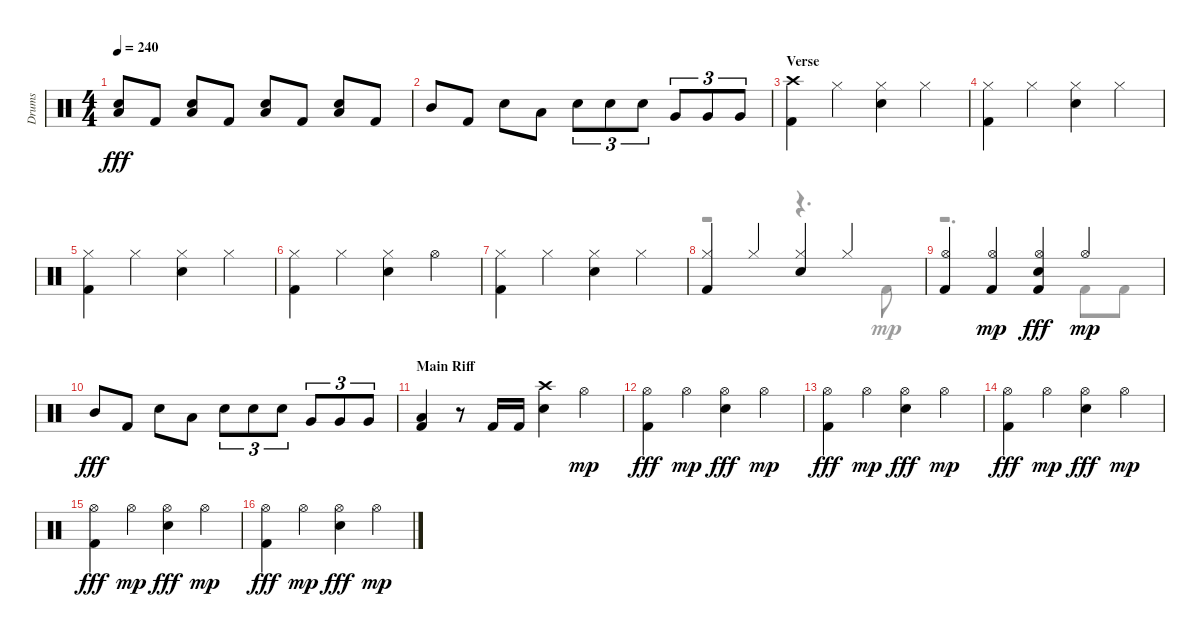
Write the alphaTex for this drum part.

\track ("Drums" "Drums") {instrument percussion}
\staff {score}
\articulation defaults
\voice
\ts (4 4)
\tempo 240
\clef neutral
\ks aminor
("Snare (hit) 2" "Low Floor Tom (hit)").8{dy fff} "Kick (hit) 2".8 ("Low Floor Tom (hit)" "Snare (hit) 2").8 "Kick (hit) 2".8 ("Snare (hit) 2" "Low Floor Tom (hit)").8 "Kick (hit) 2".8 ("Snare (hit) 2" "Low Floor Tom (hit)").8 "Kick (hit) 2".8 |
"Mid Tom (hit)".8 "Kick (hit) 2".8 "Snare (hit) 2".8 "Low Tom (hit)".8 "Snare (hit) 2".8{tu (3 2)} "Snare (hit) 2".8{tu (3 2)} "Snare (hit) 2".8{tu (3 2)} "Very Low Tom (hit)".8{tu (3 2)} "Very Low Tom (hit)".8{tu (3 2)} "Very Low Tom (hit)".8{tu (3 2)} |
\section ("" "Verse")
("Kick (hit) 2" "Crash high (hit)").4 "Hi-Hat (closed)".4 ("Hi-Hat (closed)" "Snare (hit) 2").4 "Hi-Hat (closed)".4 |
("Hi-Hat (closed)" "Kick (hit) 2").4 "Hi-Hat (closed)".4 ("Hi-Hat (closed)" "Snare (hit) 2").4 "Hi-Hat (closed)".4 |
("Kick (hit) 2" "Hi-Hat (closed)").4 "Hi-Hat (closed)".4 ("Snare (hit) 2" "Hi-Hat (closed)").4 "Hi-Hat (closed)".4 |
("Kick (hit) 2" "Hi-Hat (closed)").4 "Hi-Hat (closed)".4 ("Snare (hit) 2" "Hi-Hat (closed)").4 "Hi-Hat (open)".4 |
("Hi-Hat (closed)" "Kick (hit) 2").4 "Hi-Hat (closed)".4 ("Snare (hit) 2" "Hi-Hat (closed)").4 "Hi-Hat (closed)".4 |
("Hi-Hat (closed)" "Kick (hit) 2").4 "Hi-Hat (closed)".4 ("Snare (hit) 2" "Hi-Hat (closed)").4 "Hi-Hat (closed)".4 |
("Kick (hit) 2" "Hi-Hat (open)").4 ("Hi-Hat (open)" "Kick (hit) 2").4{dy mp} ("Kick (hit) 2" "Snare (hit) 2" "Hi-Hat (open)").4{dy fff} "Hi-Hat (open)".4{dy mp} |
"Mid Tom (hit)".8{dy fff} "Kick (hit) 2".8 "Snare (hit) 2".8 "Low Tom (hit)".8 "Snare (hit) 2".8{tu (3 2)} "Snare (hit) 2".8{tu (3 2)} "Snare (hit) 2".8{tu (3 2)} "Very Low Tom (hit)".8{tu (3 2)} "Very Low Tom (hit)".8{tu (3 2)} "Very Low Tom (hit)".8{tu (3 2)} |
\section ("" "Main Riff")
("Low Floor Tom (hit)" "Kick (hit) 2").4 r.8 "Kick (hit) 2".16 "Kick (hit) 2".16 ("Crash high (hit)" "Snare (hit) 2").4 "Hi-Hat (open)".4{dy mp} |
("Hi-Hat (open)" "Kick (hit) 2").4{dy fff} "Hi-Hat (open)".4{dy mp} ("Hi-Hat (open)" "Snare (hit) 2").4{dy fff} "Hi-Hat (open)".4{dy mp} |
("Kick (hit) 2" "Hi-Hat (open)").4{dy fff} "Hi-Hat (open)".4{dy mp} ("Snare (hit) 2" "Hi-Hat (open)").4{dy fff} "Hi-Hat (open)".4{dy mp} |
("Kick (hit) 2" "Hi-Hat (open)").4{dy fff} "Hi-Hat (open)".4{dy mp} ("Hi-Hat (open)" "Snare (hit) 2").4{dy fff} "Hi-Hat (open)".4{dy mp} |
("Hi-Hat (open)" "Kick (hit) 2").4{dy fff} "Hi-Hat (open)".4{dy mp} ("Snare (hit) 2" "Hi-Hat (open)").4{dy fff} "Hi-Hat (open)".4{dy mp} |
("Hi-Hat (open)" "Kick (hit) 2").4{dy fff} "Hi-Hat (open)".4{dy mp} ("Snare (hit) 2" "Hi-Hat (open)").4{dy fff} "Hi-Hat (open)".4{dy mp}
\voice
\clef neutral
\ottava regular
\simile none
\ks aminor
|
|
|
|
|
|
|
r.2 r.4{d} "Kick (hit) 2".8 |
r.2{d} "Kick (hit) 2".8 "Kick (hit) 2".8 |
|
|
|
|
|
|
